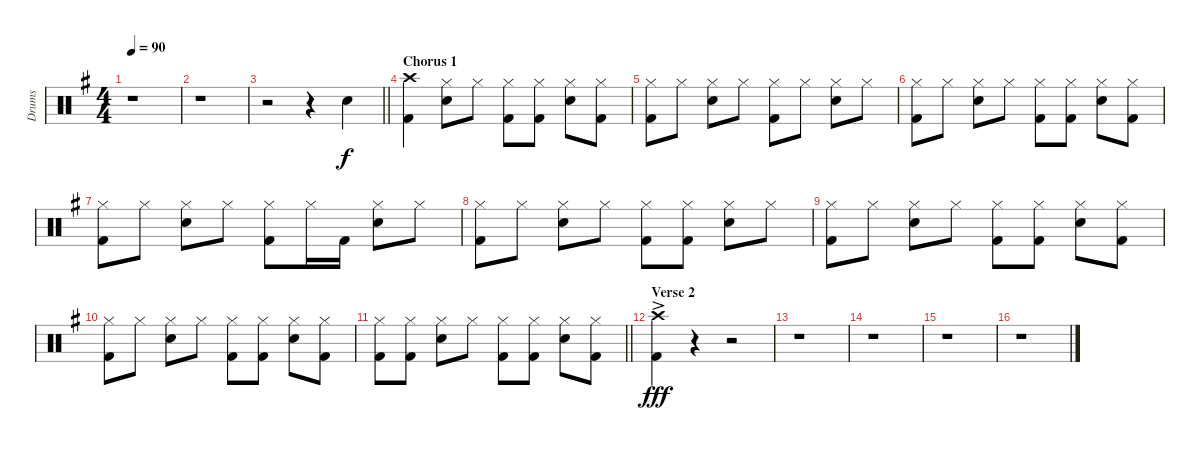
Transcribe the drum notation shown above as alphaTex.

\track ("Drums" "Drums") {instrument percussion}
\staff {score}
\articulation defaults
\ts (4 4)
\tempo 90
\clef neutral
\ks g
r.1{dy f} |
r.1 |
\barLineRight lightlight
r.2 r.4 "Electric Snare (hit)".4 |
\section ("" "Chorus 1")
("Crash high (hit)" "Kick (hit) 2").4 ("Hi-Hat (closed)" "Electric Snare (hit)").8 "Hi-Hat (closed)".8 ("Hi-Hat (closed)" "Kick (hit) 2").8 ("Hi-Hat (closed)" "Kick (hit) 2").8 ("Hi-Hat (closed)" "Electric Snare (hit)").8 ("Hi-Hat (closed)" "Kick (hit) 2").8 |
("Hi-Hat (closed)" "Kick (hit) 2").8 "Hi-Hat (closed)".8 ("Hi-Hat (closed)" "Electric Snare (hit)").8 "Hi-Hat (closed)".8 ("Hi-Hat (closed)" "Kick (hit) 2").8 "Hi-Hat (closed)".8 ("Hi-Hat (closed)" "Electric Snare (hit)").8 "Hi-Hat (closed)".8 |
("Hi-Hat (closed)" "Kick (hit) 2").8 "Hi-Hat (closed)".8 ("Hi-Hat (closed)" "Electric Snare (hit)").8 "Hi-Hat (closed)".8 ("Hi-Hat (closed)" "Kick (hit) 2").8 ("Hi-Hat (closed)" "Kick (hit) 2").8 ("Hi-Hat (closed)" "Electric Snare (hit)").8 ("Hi-Hat (closed)" "Kick (hit) 2").8 |
("Hi-Hat (closed)" "Kick (hit) 2").8 "Hi-Hat (closed)".8 ("Hi-Hat (closed)" "Electric Snare (hit)").8 "Hi-Hat (closed)".8 ("Hi-Hat (closed)" "Kick (hit) 2").8 "Hi-Hat (closed)".16 "Kick (hit) 2".16 ("Hi-Hat (closed)" "Electric Snare (hit)").8 "Hi-Hat (closed)".8 |
("Hi-Hat (closed)" "Kick (hit) 2").8 "Hi-Hat (closed)".8 ("Hi-Hat (closed)" "Electric Snare (hit)").8 "Hi-Hat (closed)".8 ("Hi-Hat (closed)" "Kick (hit) 2").8 ("Hi-Hat (closed)" "Kick (hit) 2").8 ("Hi-Hat (closed)" "Electric Snare (hit)").8 "Hi-Hat (closed)".8 |
("Hi-Hat (closed)" "Kick (hit) 2").8 "Hi-Hat (closed)".8 ("Hi-Hat (closed)" "Electric Snare (hit)").8 "Hi-Hat (closed)".8 ("Hi-Hat (closed)" "Kick (hit) 2").8 ("Hi-Hat (closed)" "Kick (hit) 2").8 ("Hi-Hat (closed)" "Electric Snare (hit)").8 ("Hi-Hat (closed)" "Kick (hit) 2").8 |
("Hi-Hat (closed)" "Kick (hit) 2").8 "Hi-Hat (closed)".8 ("Hi-Hat (closed)" "Electric Snare (hit)").8 "Hi-Hat (closed)".8 ("Hi-Hat (closed)" "Kick (hit) 2").8 ("Hi-Hat (closed)" "Kick (hit) 2").8 ("Hi-Hat (closed)" "Electric Snare (hit)").8 ("Hi-Hat (closed)" "Kick (hit) 2").8 |
\barLineRight lightlight
("Hi-Hat (closed)" "Kick (hit) 2").8 ("Hi-Hat (closed)" "Kick (hit) 2").8 ("Hi-Hat (closed)" "Electric Snare (hit)").8 "Hi-Hat (closed)".8 ("Hi-Hat (closed)" "Kick (hit) 2").8 ("Hi-Hat (closed)" "Kick (hit) 2").8 ("Hi-Hat (closed)" "Electric Snare (hit)").8 ("Hi-Hat (closed)" "Kick (hit) 2").8 |
\section ("" "Verse 2")
("Crash high (hit)"{ac} "Kick (hit) 2").4{dy fff} r.4 r.2 |
r.1 |
r.1 |
r.1 |
r.1
